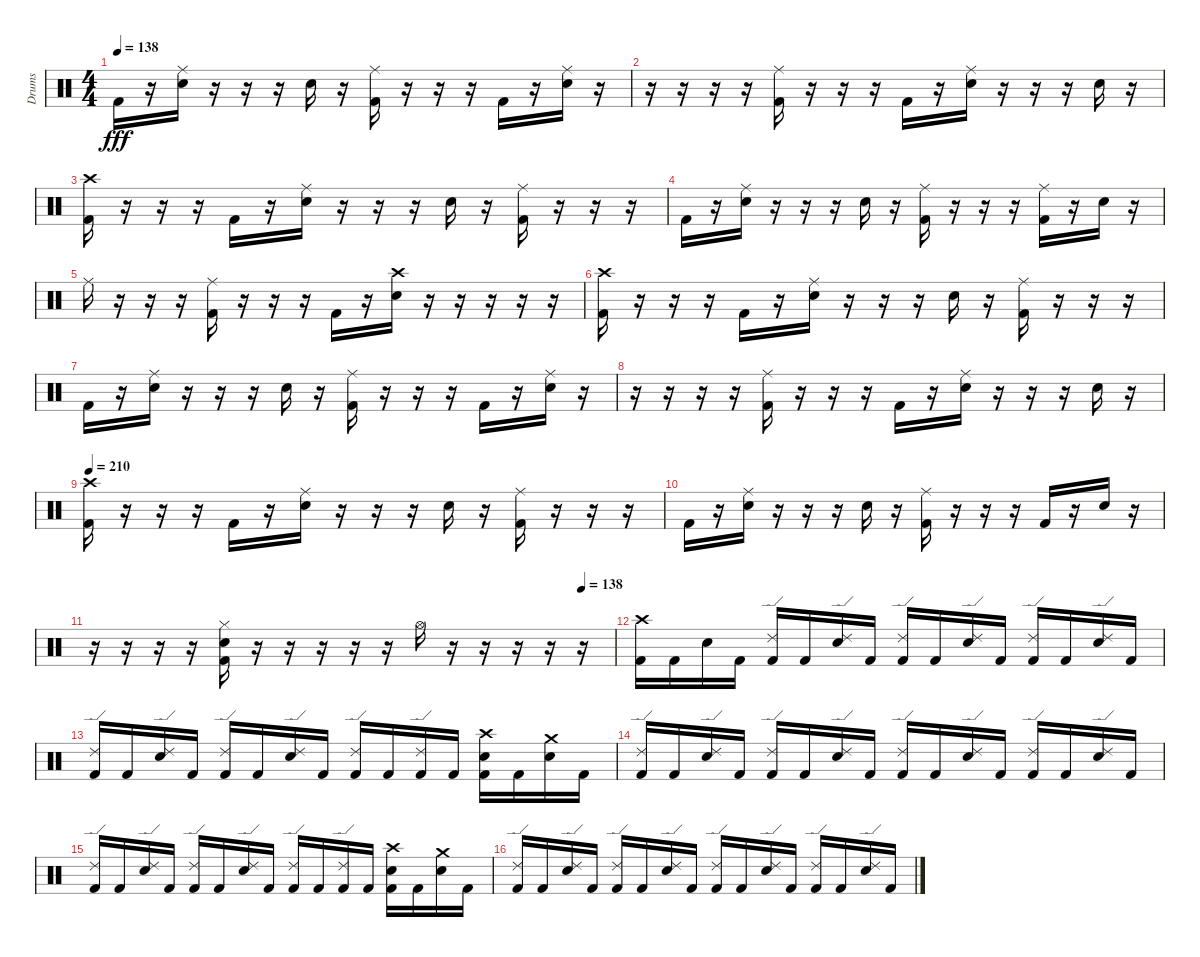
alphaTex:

\track ("Drums" "Drums") {instrument percussion}
\staff {score}
\articulation defaults
\ts (4 4)
\tempo 138
\clef neutral
\ks c "Kick (hit) 2".16{dy fff}
r.16 ("Ride (middle)" "Snare (hit) 2").16 r.16 r.16 r.16 "Snare (hit) 2".16 r.16 ("Ride (middle)" "Kick (hit) 2").16 r.16 r.16 r.16 "Kick (hit) 2".16 r.16 ("Ride (middle)" "Snare (hit) 2").16 r.16 |
r.16 r.16 r.16 r.16 ("Ride (middle)" "Kick (hit) 2").16 r.16 r.16 r.16 "Kick (hit) 2".16 r.16 ("Ride (middle)" "Snare (hit) 2").16 r.16 r.16 r.16 "Snare (hit) 2".16 r.16 |
("Crash high (hit)" "Kick (hit) 2").16 r.16 r.16 r.16 "Kick (hit) 2".16 r.16 ("Ride (middle)" "Snare (hit) 2").16 r.16 r.16 r.16 "Snare (hit) 2".16 r.16 ("Ride (middle)" "Kick (hit) 2").16 r.16 r.16 r.16 |
"Kick (hit) 2".16 r.16 ("Ride (middle)" "Snare (hit) 2").16 r.16 r.16 r.16 "Snare (hit) 2".16 r.16 ("Ride (middle)" "Kick (hit) 2").16 r.16 r.16 r.16 ("Ride (middle)" "Kick (hit) 2").16 r.16 "Snare (hit) 2".16 r.16 |
"Ride (middle)".16 r.16 r.16 r.16 ("Ride (middle)" "Kick (hit) 2").16 r.16 r.16 r.16 "Kick (hit) 2".16 r.16 ("Crash high (hit)" "Snare (hit) 2").16 r.16 r.16 r.16 r.16 r.16 |
("Crash high (hit)" "Kick (hit) 2").16 r.16 r.16 r.16 "Kick (hit) 2".16 r.16 ("Ride (middle)" "Snare (hit) 2").16 r.16 r.16 r.16 "Snare (hit) 2".16 r.16 ("Ride (middle)" "Kick (hit) 2").16 r.16 r.16 r.16 |
"Kick (hit) 2".16 r.16 ("Ride (middle)" "Snare (hit) 2").16 r.16 r.16 r.16 "Snare (hit) 2".16 r.16 ("Ride (middle)" "Kick (hit) 2").16 r.16 r.16 r.16 "Kick (hit) 2".16 r.16 ("Ride (middle)" "Snare (hit) 2").16 r.16 |
r.16 r.16 r.16 r.16 ("Ride (middle)" "Kick (hit) 2").16 r.16 r.16 r.16 "Kick (hit) 2".16 r.16 ("Ride (middle)" "Snare (hit) 2").16 r.16 r.16 r.16 "Snare (hit) 2".16 r.16 |
\tempo 210
("Crash high (hit)" "Kick (hit) 2").16 r.16 r.16 r.16 "Kick (hit) 2".16 r.16 ("Ride (middle)" "Snare (hit) 2").16 r.16 r.16 r.16 "Snare (hit) 2".16 r.16 ("Ride (middle)" "Kick (hit) 2").16 r.16 r.16 r.16 |
"Kick (hit) 2".16 r.16 ("Ride (middle)" "Snare (hit) 2").16 r.16 r.16 r.16 "Snare (hit) 2".16 r.16 ("Ride (middle)" "Kick (hit) 2").16 r.16 r.16 r.16 "Kick (hit) 2".16 r.16 "Snare (hit) 2".16 r.16 |
\tempo (138 0.9375)
r.16 r.16 r.16 r.16 ("Hi-Hat (closed)" "Snare (hit) 2" "Kick (hit) 2").16 r.16 r.16 r.16 r.16 r.16 "Hi-Hat (open)".16 r.16 r.16 r.16 r.16 r.16 |
("Crash high (hit)" "Kick (hit) 2").16 "Kick (hit) 2".16 "Snare (hit) 2".16 "Kick (hit) 2".16 ("Ride (edge) 2" "Kick (hit) 2").16 "Kick (hit) 2".16 ("Ride (edge) 2" "Snare (hit) 2").16 "Kick (hit) 2".16 ("Ride (edge) 2" "Kick (hit) 2").16 "Kick (hit) 2".16 ("Ride (edge) 2" "Snare (hit) 2").16 "Kick (hit) 2".16 ("Ride (edge) 2" "Kick (hit) 2").16 "Kick (hit) 2".16 ("Ride (edge) 2" "Snare (hit) 2").16 "Kick (hit) 2".16 |
("Ride (edge) 2" "Kick (hit) 2").16 "Kick (hit) 2".16 ("Ride (edge) 2" "Snare (hit) 2").16 "Kick (hit) 2".16 ("Ride (edge) 2" "Kick (hit) 2").16 "Kick (hit) 2".16 ("Ride (edge) 2" "Snare (hit) 2").16 "Kick (hit) 2".16 ("Ride (edge) 2" "Kick (hit) 2").16 "Kick (hit) 2".16 ("Ride (edge) 2" "Kick (hit) 2").16 "Kick (hit) 2".16 ("Crash high (hit)" "Snare (hit) 2" "Kick (hit) 2").16 "Kick (hit) 2".16 ("Crash medium (hit)" "Snare (hit) 2").16 "Kick (hit) 2".16 |
("Ride (edge) 2" "Kick (hit) 2").16 "Kick (hit) 2".16 ("Ride (edge) 2" "Snare (hit) 2").16 "Kick (hit) 2".16 ("Ride (edge) 2" "Kick (hit) 2").16 "Kick (hit) 2".16 ("Ride (edge) 2" "Snare (hit) 2").16 "Kick (hit) 2".16 ("Ride (edge) 2" "Kick (hit) 2").16 "Kick (hit) 2".16 ("Ride (edge) 2" "Snare (hit) 2").16 "Kick (hit) 2".16 ("Ride (edge) 2" "Kick (hit) 2").16 "Kick (hit) 2".16 ("Ride (edge) 2" "Snare (hit) 2").16 "Kick (hit) 2".16 |
("Ride (edge) 2" "Kick (hit) 2").16 "Kick (hit) 2".16 ("Ride (edge) 2" "Snare (hit) 2").16 "Kick (hit) 2".16 ("Ride (edge) 2" "Kick (hit) 2").16 "Kick (hit) 2".16 ("Ride (edge) 2" "Snare (hit) 2").16 "Kick (hit) 2".16 ("Ride (edge) 2" "Kick (hit) 2").16 "Kick (hit) 2".16 ("Ride (edge) 2" "Kick (hit) 2").16 "Kick (hit) 2".16 ("Crash high (hit)" "Snare (hit) 2" "Kick (hit) 2").16 "Kick (hit) 2".16 ("Crash medium (hit)" "Snare (hit) 2").16 "Kick (hit) 2".16 |
("Ride (edge) 2" "Kick (hit) 2").16 "Kick (hit) 2".16 ("Ride (edge) 2" "Snare (hit) 2").16 "Kick (hit) 2".16 ("Ride (edge) 2" "Kick (hit) 2").16 "Kick (hit) 2".16 ("Ride (edge) 2" "Snare (hit) 2").16 "Kick (hit) 2".16 ("Ride (edge) 2" "Kick (hit) 2").16 "Kick (hit) 2".16 ("Ride (edge) 2" "Snare (hit) 2").16 "Kick (hit) 2".16 ("Ride (edge) 2" "Kick (hit) 2").16 "Kick (hit) 2".16 ("Ride (edge) 2" "Snare (hit) 2").16 "Kick (hit) 2".16
